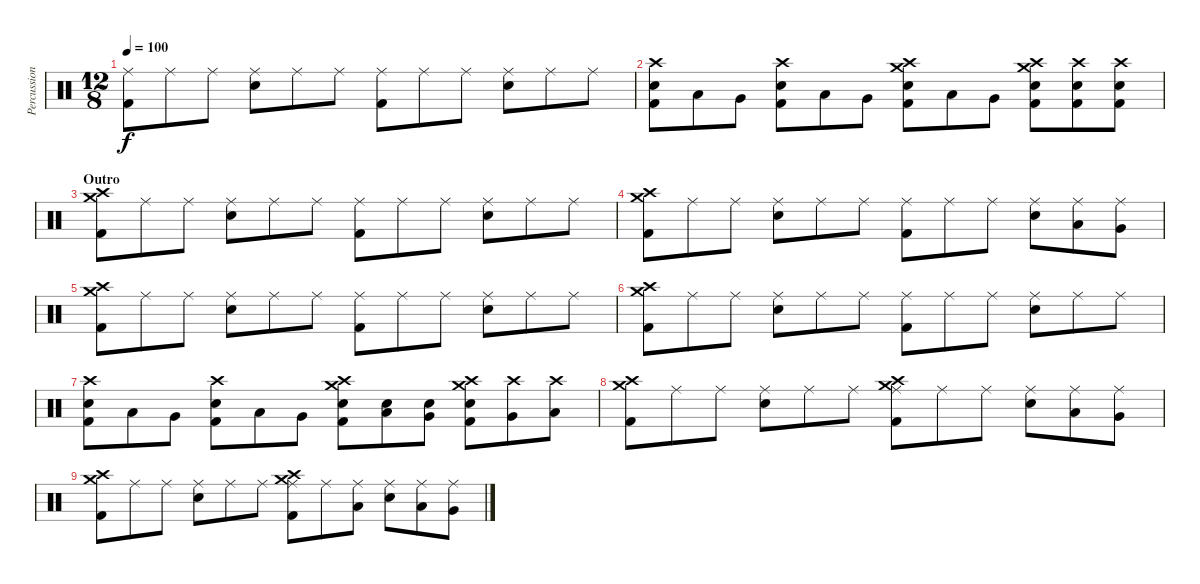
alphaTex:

\track ("Percussion" "Percussion") {instrument percussion}
\staff {score}
\articulation defaults
\ts (12 8)
\tempo 100
\clef neutral
\ks c
("Kick (hit) 2" "Ride (middle)").8{dy f} "Ride (middle)".8 "Ride (middle)".8 ("Snare (hit) 2" "Ride (middle)").8 "Ride (middle)".8 "Ride (middle)".8 ("Kick (hit) 2" "Ride (middle)").8 "Ride (middle)".8 "Ride (middle)".8 ("Snare (hit) 2" "Ride (middle)").8 "Ride (middle)".8 "Ride (middle)".8 |
("Crash high (hit)" "Kick (hit) 2" "Snare (hit) 2").8 "Low Tom (hit)".8 "Very Low Tom (hit)".8 ("Crash high (hit)" "Kick (hit) 2" "Snare (hit) 2").8 "Low Tom (hit)".8 "Very Low Tom (hit)".8 ("Crash medium (hit)" "Kick (hit) 2" "Snare (hit) 2" "Crash high (hit)").8 "Low Tom (hit)".8 "Very Low Tom (hit)".8 ("Crash medium (hit)" "Kick (hit) 2" "Snare (hit) 2" "Crash high (hit)").8 ("Snare (hit) 2" "Kick (hit) 2" "Crash high (hit)").8 ("Snare (hit) 2" "Kick (hit) 2" "Crash high (hit)").8 |
\section ("" "Outro")
("Crash medium (hit)" "Kick (hit) 2" "Crash high (hit)").8 "Ride (middle)".8 "Ride (middle)".8 ("Snare (hit) 2" "Ride (middle)").8 "Ride (middle)".8 "Ride (middle)".8 ("Kick (hit) 2" "Ride (middle)").8 "Ride (middle)".8 "Ride (middle)".8 ("Snare (hit) 2" "Ride (middle)").8 "Ride (middle)".8 "Ride (middle)".8 |
("Crash medium (hit)" "Crash high (hit)" "Kick (hit) 2").8 "Ride (middle)".8 "Ride (middle)".8 ("Snare (hit) 2" "Ride (middle)").8 "Ride (middle)".8 "Ride (middle)".8 ("Kick (hit) 2" "Ride (middle)").8 "Ride (middle)".8 "Ride (middle)".8 ("Snare (hit) 2" "Ride (middle)").8 ("Low Tom (hit)" "Ride (middle)").8 ("Very Low Tom (hit)" "Ride (middle)").8 |
("Crash medium (hit)" "Kick (hit) 2" "Crash high (hit)").8 "Ride (middle)".8 "Ride (middle)".8 ("Snare (hit) 2" "Ride (middle)").8 "Ride (middle)".8 "Ride (middle)".8 ("Kick (hit) 2" "Ride (middle)").8 "Ride (middle)".8 "Ride (middle)".8 ("Snare (hit) 2" "Ride (middle)").8 "Ride (middle)".8 "Ride (middle)".8 |
("Crash medium (hit)" "Crash high (hit)" "Kick (hit) 2").8 "Ride (middle)".8 "Ride (middle)".8 ("Snare (hit) 2" "Ride (middle)").8 "Ride (middle)".8 "Ride (middle)".8 ("Kick (hit) 2" "Ride (middle)").8 "Ride (middle)".8 "Ride (middle)".8 ("Snare (hit) 2" "Ride (middle)").8 "Ride (middle)".8 "Ride (middle)".8 |
("Crash high (hit)" "Kick (hit) 2" "Snare (hit) 2").8 "Low Tom (hit)".8 "Very Low Tom (hit)".8 ("Crash high (hit)" "Kick (hit) 2" "Snare (hit) 2").8 "Low Tom (hit)".8 "Very Low Tom (hit)".8 ("Crash medium (hit)" "Kick (hit) 2" "Snare (hit) 2" "Crash high (hit)").8 ("Snare (hit) 2" "Low Tom (hit)").8 ("Snare (hit) 2" "Very Low Tom (hit)").8 ("Crash medium (hit)" "Kick (hit) 2" "Snare (hit) 2" "Crash high (hit)").8 ("Very Low Tom (hit)" "Crash high (hit)").8 ("Low Floor Tom (hit)" "Crash high (hit)").8 |
("Crash medium (hit)" "Crash high (hit)" "Kick (hit) 2").8 "Ride (middle)".8 "Ride (middle)".8 ("Snare (hit) 2" "Ride (middle)").8 "Ride (middle)".8 "Ride (middle)".8 ("Crash medium (hit)" "Crash high (hit)" "Kick (hit) 2" "Ride (middle)").8 "Ride (middle)".8 "Ride (middle)".8 ("Snare (hit) 2" "Ride (middle)").8 ("Low Tom (hit)" "Ride (middle)").8 ("Very Low Tom (hit)" "Ride (middle)").8 |
("Crash medium (hit)" "Crash high (hit)" "Kick (hit) 2").8 "Ride (middle)".8 "Ride (middle)".8 ("Snare (hit) 2" "Ride (middle)").8 "Ride (middle)".8 "Ride (middle)".8 ("Crash medium (hit)" "Crash high (hit)" "Kick (hit) 2" "Ride (middle)").8 "Ride (middle)".8 ("Low Floor Tom (hit)" "Ride (middle)").8 ("Snare (hit) 2" "Ride (middle)").8 ("Low Tom (hit)" "Ride (middle)").8 ("Very Low Tom (hit)" "Ride (middle)").8
